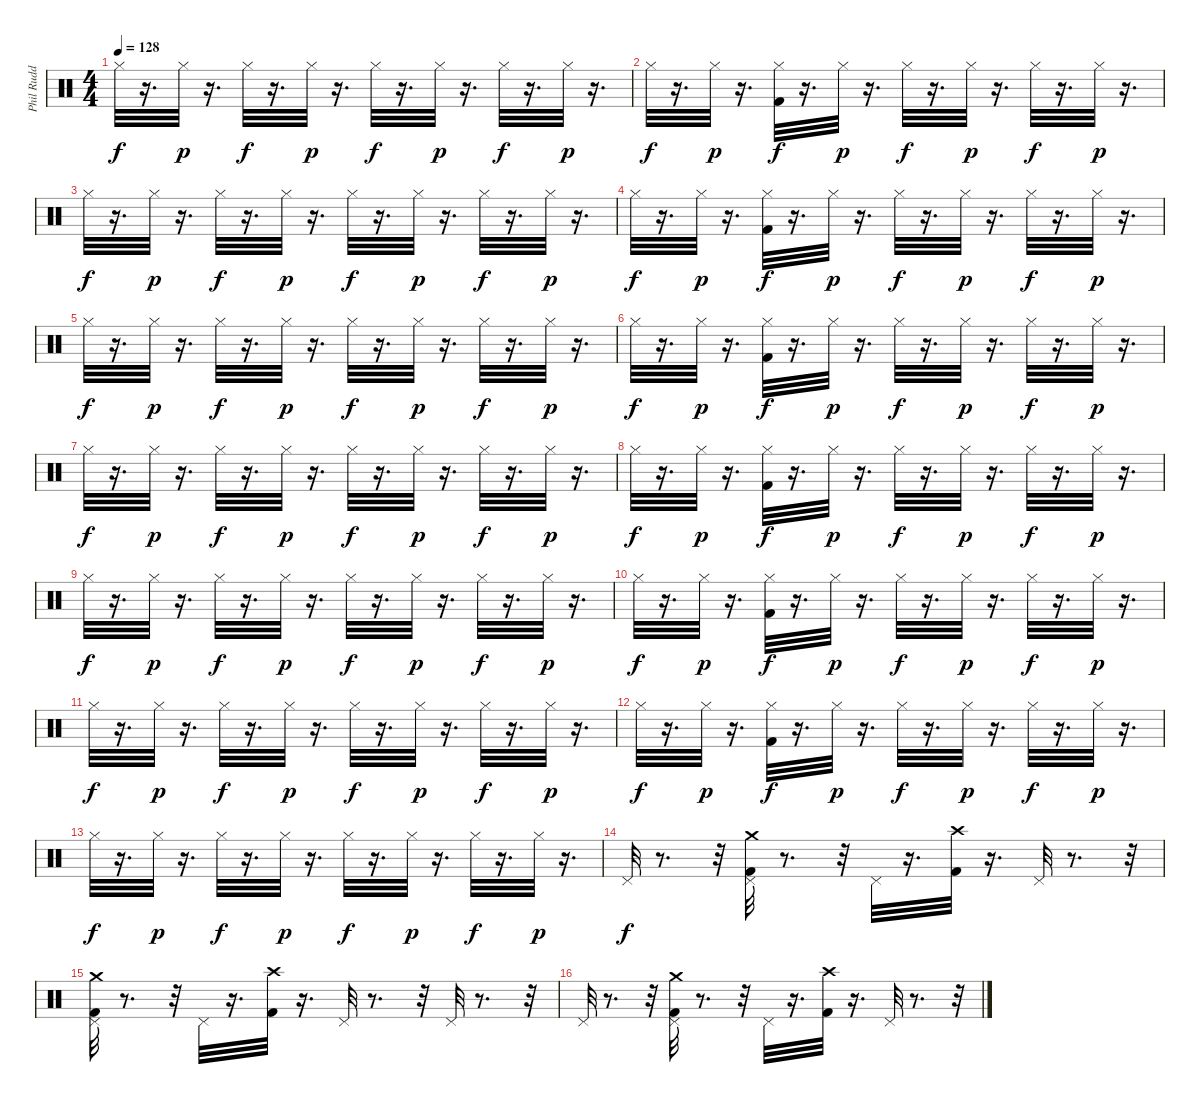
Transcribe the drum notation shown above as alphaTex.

\track ("Phil Rudd" "Phil Rudd") {instrument percussion}
\staff {score}
\articulation defaults
\ts (4 4)
\tempo 128
\clef neutral
\ks c "Hi-Hat (closed)".32{dy f}
r.16{d} "Hi-Hat (closed)".32{dy p} r.16{d} "Hi-Hat (closed)".32{dy f} r.16{d} "Hi-Hat (closed)".32{dy p} r.16{d} "Hi-Hat (closed)".32{dy f} r.16{d} "Hi-Hat (closed)".32{dy p} r.16{d} "Hi-Hat (closed)".32{dy f} r.16{d} "Hi-Hat (closed)".32{dy p} r.16{d} |
"Hi-Hat (closed)".32{dy f} r.16{d} "Hi-Hat (closed)".32{dy p} r.16{d} ("Kick (hit) 2" "Hi-Hat (closed)").32{dy f} r.16{d} "Hi-Hat (closed)".32{dy p} r.16{d} "Hi-Hat (closed)".32{dy f} r.16{d} "Hi-Hat (closed)".32{dy p} r.16{d} "Hi-Hat (closed)".32{dy f} r.16{d} "Hi-Hat (closed)".32{dy p} r.16{d} |
"Hi-Hat (closed)".32{dy f} r.16{d} "Hi-Hat (closed)".32{dy p} r.16{d} "Hi-Hat (closed)".32{dy f} r.16{d} "Hi-Hat (closed)".32{dy p} r.16{d} "Hi-Hat (closed)".32{dy f} r.16{d} "Hi-Hat (closed)".32{dy p} r.16{d} "Hi-Hat (closed)".32{dy f} r.16{d} "Hi-Hat (closed)".32{dy p} r.16{d} |
"Hi-Hat (closed)".32{dy f} r.16{d} "Hi-Hat (closed)".32{dy p} r.16{d} ("Kick (hit) 2" "Hi-Hat (closed)").32{dy f} r.16{d} "Hi-Hat (closed)".32{dy p} r.16{d} "Hi-Hat (closed)".32{dy f} r.16{d} "Hi-Hat (closed)".32{dy p} r.16{d} "Hi-Hat (closed)".32{dy f} r.16{d} "Hi-Hat (closed)".32{dy p} r.16{d} |
"Hi-Hat (closed)".32{dy f} r.16{d} "Hi-Hat (closed)".32{dy p} r.16{d} "Hi-Hat (closed)".32{dy f} r.16{d} "Hi-Hat (closed)".32{dy p} r.16{d} "Hi-Hat (closed)".32{dy f} r.16{d} "Hi-Hat (closed)".32{dy p} r.16{d} "Hi-Hat (closed)".32{dy f} r.16{d} "Hi-Hat (closed)".32{dy p} r.16{d} |
"Hi-Hat (closed)".32{dy f} r.16{d} "Hi-Hat (closed)".32{dy p} r.16{d} ("Kick (hit) 2" "Hi-Hat (closed)").32{dy f} r.16{d} "Hi-Hat (closed)".32{dy p} r.16{d} "Hi-Hat (closed)".32{dy f} r.16{d} "Hi-Hat (closed)".32{dy p} r.16{d} "Hi-Hat (closed)".32{dy f} r.16{d} "Hi-Hat (closed)".32{dy p} r.16{d} |
"Hi-Hat (closed)".32{dy f} r.16{d} "Hi-Hat (closed)".32{dy p} r.16{d} "Hi-Hat (closed)".32{dy f} r.16{d} "Hi-Hat (closed)".32{dy p} r.16{d} "Hi-Hat (closed)".32{dy f} r.16{d} "Hi-Hat (closed)".32{dy p} r.16{d} "Hi-Hat (closed)".32{dy f} r.16{d} "Hi-Hat (closed)".32{dy p} r.16{d} |
"Hi-Hat (closed)".32{dy f} r.16{d} "Hi-Hat (closed)".32{dy p} r.16{d} ("Kick (hit) 2" "Hi-Hat (closed)").32{dy f} r.16{d} "Hi-Hat (closed)".32{dy p} r.16{d} "Hi-Hat (closed)".32{dy f} r.16{d} "Hi-Hat (closed)".32{dy p} r.16{d} "Hi-Hat (closed)".32{dy f} r.16{d} "Hi-Hat (closed)".32{dy p} r.16{d} |
"Hi-Hat (closed)".32{dy f} r.16{d} "Hi-Hat (closed)".32{dy p} r.16{d} "Hi-Hat (closed)".32{dy f} r.16{d} "Hi-Hat (closed)".32{dy p} r.16{d} "Hi-Hat (closed)".32{dy f} r.16{d} "Hi-Hat (closed)".32{dy p} r.16{d} "Hi-Hat (closed)".32{dy f} r.16{d} "Hi-Hat (closed)".32{dy p} r.16{d} |
"Hi-Hat (closed)".32{dy f} r.16{d} "Hi-Hat (closed)".32{dy p} r.16{d} ("Kick (hit) 2" "Hi-Hat (closed)").32{dy f} r.16{d} "Hi-Hat (closed)".32{dy p} r.16{d} "Hi-Hat (closed)".32{dy f} r.16{d} "Hi-Hat (closed)".32{dy p} r.16{d} "Hi-Hat (closed)".32{dy f} r.16{d} "Hi-Hat (closed)".32{dy p} r.16{d} |
"Hi-Hat (closed)".32{dy f} r.16{d} "Hi-Hat (closed)".32{dy p} r.16{d} "Hi-Hat (closed)".32{dy f} r.16{d} "Hi-Hat (closed)".32{dy p} r.16{d} "Hi-Hat (closed)".32{dy f} r.16{d} "Hi-Hat (closed)".32{dy p} r.16{d} "Hi-Hat (closed)".32{dy f} r.16{d} "Hi-Hat (closed)".32{dy p} r.16{d} |
"Hi-Hat (closed)".32{dy f} r.16{d} "Hi-Hat (closed)".32{dy p} r.16{d} ("Kick (hit) 2" "Hi-Hat (closed)").32{dy f} r.16{d} "Hi-Hat (closed)".32{dy p} r.16{d} "Hi-Hat (closed)".32{dy f} r.16{d} "Hi-Hat (closed)".32{dy p} r.16{d} "Hi-Hat (closed)".32{dy f} r.16{d} "Hi-Hat (closed)".32{dy p} r.16{d} |
"Hi-Hat (closed)".32{dy f} r.16{d} "Hi-Hat (closed)".32{dy p} r.16{d} "Hi-Hat (closed)".32{dy f} r.16{d} "Hi-Hat (closed)".32{dy p} r.16{d} "Hi-Hat (closed)".32{dy f} r.16{d} "Hi-Hat (closed)".32{dy p} r.16{d} "Hi-Hat (closed)".32{dy f} r.16{d} "Hi-Hat (closed)".32{dy p} r.16{d} |
"Pedal Hi-Hat (hit)".32{dy f} r.8{d} r.32 ("Kick (hit) 2" "Crash medium (hit)" "Pedal Hi-Hat (hit)").32 r.8{d} r.32 "Pedal Hi-Hat (hit)".32 r.16{d} ("Kick (hit) 2" "Crash high (hit)").32 r.16{d} "Pedal Hi-Hat (hit)".32 r.8{d} r.32 |
("Kick (hit) 2" "Crash medium (hit)" "Pedal Hi-Hat (hit)").32 r.8{d} r.32 "Pedal Hi-Hat (hit)".32 r.16{d} ("Kick (hit) 2" "Crash high (hit)").32 r.16{d} "Pedal Hi-Hat (hit)".32 r.8{d} r.32 "Pedal Hi-Hat (hit)".32 r.8{d} r.32 |
"Pedal Hi-Hat (hit)".32 r.8{d} r.32 ("Kick (hit) 2" "Crash medium (hit)" "Pedal Hi-Hat (hit)").32 r.8{d} r.32 "Pedal Hi-Hat (hit)".32 r.16{d} ("Kick (hit) 2" "Crash high (hit)").32 r.16{d} "Pedal Hi-Hat (hit)".32 r.8{d} r.32
